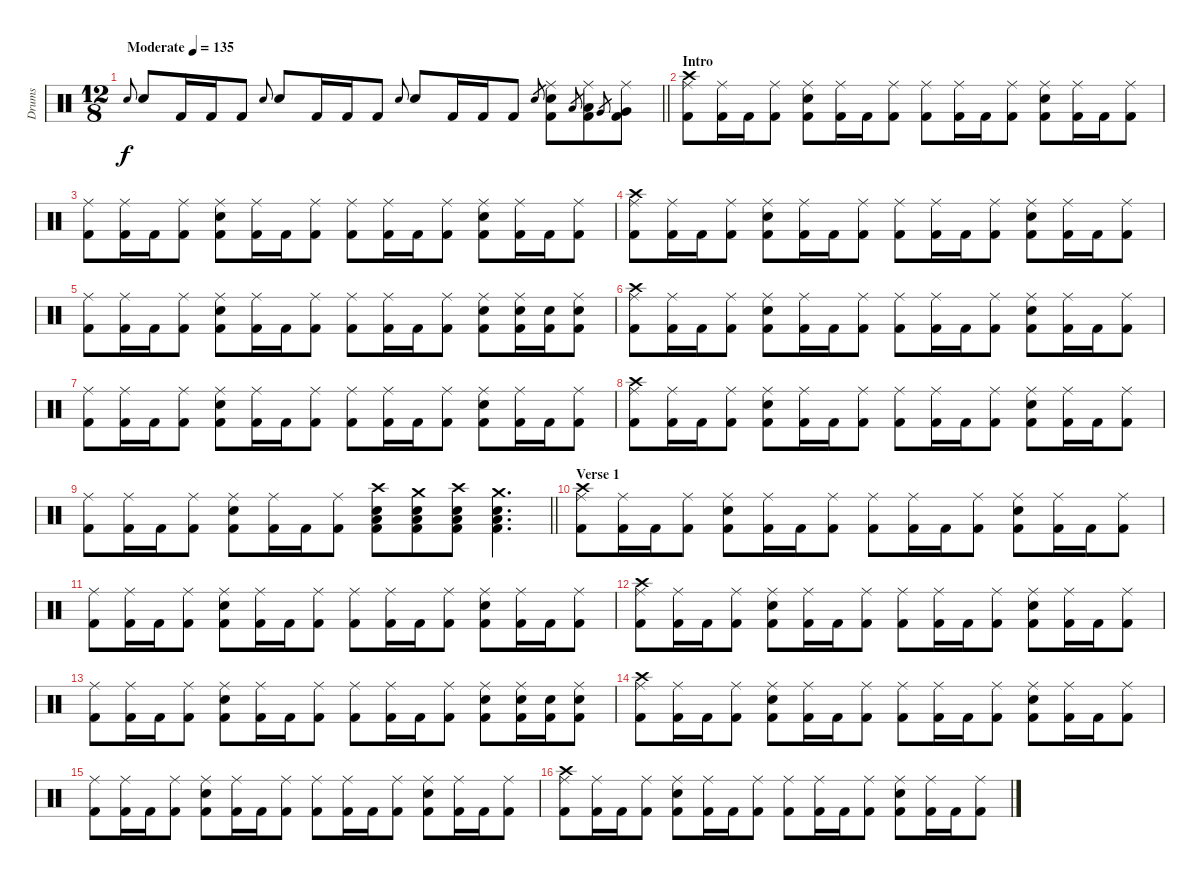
\track ("Drums" "Drums") {instrument percussion}
\staff {score}
\articulation defaults
\ts (12 8)
\tempo (135 "Moderate")
\clef neutral
\barLineRight lightlight
\ks c "Snare (hit) 2".8{gr onbeat dy f} "Snare (hit) 2".8 "Kick (hit) 2".16 "Kick (hit) 2".16 "Kick (hit) 2".8 "Snare (hit) 2".8{gr onbeat} "Snare (hit) 2".8 "Kick (hit) 2".16 "Kick (hit) 2".16 "Kick (hit) 2".8 "Snare (hit) 2".8{gr onbeat} "Snare (hit) 2".8 "Kick (hit) 2".16 "Kick (hit) 2".16 "Kick (hit) 2".8 "Snare (hit) 2".8{gr}
("Ride (middle)" "Snare (hit) 2" "Kick (hit) 2").8 "Low Tom (hit)".8{gr} ("Ride (middle)" "Low Tom (hit)" "Kick (hit) 2").8 "Very Low Tom (hit)".8{gr} ("Ride (middle)" "Very Low Tom (hit)" "Kick (hit) 2").8 |
\section ("" "Intro")
("Crash high (hit)" "Ride (middle)" "Kick (hit) 2").8 ("Ride (middle)" "Kick (hit) 2").16 "Kick (hit) 2".16 ("Ride (middle)" "Kick (hit) 2").8 ("Ride (middle)" "Snare (hit) 2" "Kick (hit) 2").8 ("Ride (middle)" "Kick (hit) 2").16 "Kick (hit) 2".16 ("Ride (middle)" "Kick (hit) 2").8 ("Ride (middle)" "Kick (hit) 2").8 ("Ride (middle)" "Kick (hit) 2").16 "Kick (hit) 2".16 ("Ride (middle)" "Kick (hit) 2").8 ("Ride (middle)" "Snare (hit) 2" "Kick (hit) 2").8 ("Ride (middle)" "Kick (hit) 2").16 "Kick (hit) 2".16 ("Ride (middle)" "Kick (hit) 2").8 |
("Ride (middle)" "Kick (hit) 2").8 ("Ride (middle)" "Kick (hit) 2").16 "Kick (hit) 2".16 ("Ride (middle)" "Kick (hit) 2").8 ("Ride (middle)" "Snare (hit) 2" "Kick (hit) 2").8 ("Ride (middle)" "Kick (hit) 2").16 "Kick (hit) 2".16 ("Ride (middle)" "Kick (hit) 2").8 ("Ride (middle)" "Kick (hit) 2").8 ("Ride (middle)" "Kick (hit) 2").16 "Kick (hit) 2".16 ("Ride (middle)" "Kick (hit) 2").8 ("Ride (middle)" "Snare (hit) 2" "Kick (hit) 2").8 ("Ride (middle)" "Kick (hit) 2").16 "Kick (hit) 2".16 ("Ride (middle)" "Kick (hit) 2").8 |
("Crash high (hit)" "Ride (middle)" "Kick (hit) 2").8 ("Ride (middle)" "Kick (hit) 2").16 "Kick (hit) 2".16 ("Ride (middle)" "Kick (hit) 2").8 ("Ride (middle)" "Snare (hit) 2" "Kick (hit) 2").8 ("Ride (middle)" "Kick (hit) 2").16 "Kick (hit) 2".16 ("Ride (middle)" "Kick (hit) 2").8 ("Ride (middle)" "Kick (hit) 2").8 ("Ride (middle)" "Kick (hit) 2").16 "Kick (hit) 2".16 ("Ride (middle)" "Kick (hit) 2").8 ("Ride (middle)" "Snare (hit) 2" "Kick (hit) 2").8 ("Ride (middle)" "Kick (hit) 2").16 "Kick (hit) 2".16 ("Ride (middle)" "Kick (hit) 2").8 |
("Ride (middle)" "Kick (hit) 2").8 ("Ride (middle)" "Kick (hit) 2").16 "Kick (hit) 2".16 ("Ride (middle)" "Kick (hit) 2").8 ("Ride (middle)" "Snare (hit) 2" "Kick (hit) 2").8 ("Ride (middle)" "Kick (hit) 2").16 "Kick (hit) 2".16 ("Ride (middle)" "Kick (hit) 2").8 ("Ride (middle)" "Kick (hit) 2").8 ("Ride (middle)" "Kick (hit) 2").16 "Kick (hit) 2".16 ("Ride (middle)" "Kick (hit) 2").8 ("Ride (middle)" "Snare (hit) 2" "Kick (hit) 2").8 ("Ride (middle)" "Snare (hit) 2" "Kick (hit) 2").16 ("Snare (hit) 2" "Kick (hit) 2").16 ("Ride (middle)" "Snare (hit) 2" "Kick (hit) 2").8 |
("Crash high (hit)" "Ride (middle)" "Kick (hit) 2").8 ("Ride (middle)" "Kick (hit) 2").16 "Kick (hit) 2".16 ("Ride (middle)" "Kick (hit) 2").8 ("Ride (middle)" "Snare (hit) 2" "Kick (hit) 2").8 ("Ride (middle)" "Kick (hit) 2").16 "Kick (hit) 2".16 ("Ride (middle)" "Kick (hit) 2").8 ("Ride (middle)" "Kick (hit) 2").8 ("Ride (middle)" "Kick (hit) 2").16 "Kick (hit) 2".16 ("Ride (middle)" "Kick (hit) 2").8 ("Ride (middle)" "Snare (hit) 2" "Kick (hit) 2").8 ("Ride (middle)" "Kick (hit) 2").16 "Kick (hit) 2".16 ("Ride (middle)" "Kick (hit) 2").8 |
("Ride (middle)" "Kick (hit) 2").8 ("Ride (middle)" "Kick (hit) 2").16 "Kick (hit) 2".16 ("Ride (middle)" "Kick (hit) 2").8 ("Ride (middle)" "Snare (hit) 2" "Kick (hit) 2").8 ("Ride (middle)" "Kick (hit) 2").16 "Kick (hit) 2".16 ("Ride (middle)" "Kick (hit) 2").8 ("Ride (middle)" "Kick (hit) 2").8 ("Ride (middle)" "Kick (hit) 2").16 "Kick (hit) 2".16 ("Ride (middle)" "Kick (hit) 2").8 ("Ride (middle)" "Snare (hit) 2" "Kick (hit) 2").8 ("Ride (middle)" "Kick (hit) 2").16 "Kick (hit) 2".16 ("Ride (middle)" "Kick (hit) 2").8 |
("Crash high (hit)" "Ride (middle)" "Kick (hit) 2").8 ("Ride (middle)" "Kick (hit) 2").16 "Kick (hit) 2".16 ("Ride (middle)" "Kick (hit) 2").8 ("Ride (middle)" "Snare (hit) 2" "Kick (hit) 2").8 ("Ride (middle)" "Kick (hit) 2").16 "Kick (hit) 2".16 ("Ride (middle)" "Kick (hit) 2").8 ("Ride (middle)" "Kick (hit) 2").8 ("Ride (middle)" "Kick (hit) 2").16 "Kick (hit) 2".16 ("Ride (middle)" "Kick (hit) 2").8 ("Ride (middle)" "Snare (hit) 2" "Kick (hit) 2").8 ("Ride (middle)" "Kick (hit) 2").16 "Kick (hit) 2".16 ("Ride (middle)" "Kick (hit) 2").8 |
\barLineRight lightlight
("Ride (middle)" "Kick (hit) 2").8 ("Ride (middle)" "Kick (hit) 2").16 "Kick (hit) 2".16 ("Ride (middle)" "Kick (hit) 2").8 ("Ride (middle)" "Snare (hit) 2" "Kick (hit) 2").8 ("Ride (middle)" "Kick (hit) 2").16 "Kick (hit) 2".16 ("Ride (middle)" "Kick (hit) 2").8 ("Crash high (hit)" "Low Floor Tom (hit)" "Snare (hit) 2" "Kick (hit) 2").8 ("Crash medium (hit)" "Low Floor Tom (hit)" "Snare (hit) 2" "Kick (hit) 2").8 ("Crash high (hit)" "Low Floor Tom (hit)" "Snare (hit) 2" "Kick (hit) 2").8 ("Crash medium (hit)" "Low Floor Tom (hit)" "Snare (hit) 2" "Kick (hit) 2").4{d} |
\section ("" "Verse 1")
("Crash high (hit)" "Ride (middle)" "Kick (hit) 2").8 ("Ride (middle)" "Kick (hit) 2").16 "Kick (hit) 2".16 ("Ride (middle)" "Kick (hit) 2").8 ("Ride (middle)" "Snare (hit) 2" "Kick (hit) 2").8 ("Ride (middle)" "Kick (hit) 2").16 "Kick (hit) 2".16 ("Ride (middle)" "Kick (hit) 2").8 ("Ride (middle)" "Kick (hit) 2").8 ("Ride (middle)" "Kick (hit) 2").16 "Kick (hit) 2".16 ("Ride (middle)" "Kick (hit) 2").8 ("Ride (middle)" "Snare (hit) 2" "Kick (hit) 2").8 ("Ride (middle)" "Kick (hit) 2").16 "Kick (hit) 2".16 ("Ride (middle)" "Kick (hit) 2").8 |
("Ride (middle)" "Kick (hit) 2").8 ("Ride (middle)" "Kick (hit) 2").16 "Kick (hit) 2".16 ("Ride (middle)" "Kick (hit) 2").8 ("Ride (middle)" "Snare (hit) 2" "Kick (hit) 2").8 ("Ride (middle)" "Kick (hit) 2").16 "Kick (hit) 2".16 ("Ride (middle)" "Kick (hit) 2").8 ("Ride (middle)" "Kick (hit) 2").8 ("Ride (middle)" "Kick (hit) 2").16 "Kick (hit) 2".16 ("Ride (middle)" "Kick (hit) 2").8 ("Ride (middle)" "Snare (hit) 2" "Kick (hit) 2").8 ("Ride (middle)" "Kick (hit) 2").16 "Kick (hit) 2".16 ("Ride (middle)" "Kick (hit) 2").8 |
("Crash high (hit)" "Ride (middle)" "Kick (hit) 2").8 ("Ride (middle)" "Kick (hit) 2").16 "Kick (hit) 2".16 ("Ride (middle)" "Kick (hit) 2").8 ("Ride (middle)" "Snare (hit) 2" "Kick (hit) 2").8 ("Ride (middle)" "Kick (hit) 2").16 "Kick (hit) 2".16 ("Ride (middle)" "Kick (hit) 2").8 ("Ride (middle)" "Kick (hit) 2").8 ("Ride (middle)" "Kick (hit) 2").16 "Kick (hit) 2".16 ("Ride (middle)" "Kick (hit) 2").8 ("Ride (middle)" "Snare (hit) 2" "Kick (hit) 2").8 ("Ride (middle)" "Kick (hit) 2").16 "Kick (hit) 2".16 ("Ride (middle)" "Kick (hit) 2").8 |
("Ride (middle)" "Kick (hit) 2").8 ("Ride (middle)" "Kick (hit) 2").16 "Kick (hit) 2".16 ("Ride (middle)" "Kick (hit) 2").8 ("Ride (middle)" "Snare (hit) 2" "Kick (hit) 2").8 ("Ride (middle)" "Kick (hit) 2").16 "Kick (hit) 2".16 ("Ride (middle)" "Kick (hit) 2").8 ("Ride (middle)" "Kick (hit) 2").8 ("Ride (middle)" "Kick (hit) 2").16 "Kick (hit) 2".16 ("Ride (middle)" "Kick (hit) 2").8 ("Ride (middle)" "Snare (hit) 2" "Kick (hit) 2").8 ("Ride (middle)" "Snare (hit) 2" "Kick (hit) 2").16 ("Snare (hit) 2" "Kick (hit) 2").16 ("Ride (middle)" "Snare (hit) 2" "Kick (hit) 2").8 |
("Crash high (hit)" "Ride (middle)" "Kick (hit) 2").8 ("Ride (middle)" "Kick (hit) 2").16 "Kick (hit) 2".16 ("Ride (middle)" "Kick (hit) 2").8 ("Ride (middle)" "Snare (hit) 2" "Kick (hit) 2").8 ("Ride (middle)" "Kick (hit) 2").16 "Kick (hit) 2".16 ("Ride (middle)" "Kick (hit) 2").8 ("Ride (middle)" "Kick (hit) 2").8 ("Ride (middle)" "Kick (hit) 2").16 "Kick (hit) 2".16 ("Ride (middle)" "Kick (hit) 2").8 ("Ride (middle)" "Snare (hit) 2" "Kick (hit) 2").8 ("Ride (middle)" "Kick (hit) 2").16 "Kick (hit) 2".16 ("Ride (middle)" "Kick (hit) 2").8 |
("Ride (middle)" "Kick (hit) 2").8 ("Ride (middle)" "Kick (hit) 2").16 "Kick (hit) 2".16 ("Ride (middle)" "Kick (hit) 2").8 ("Ride (middle)" "Snare (hit) 2" "Kick (hit) 2").8 ("Ride (middle)" "Kick (hit) 2").16 "Kick (hit) 2".16 ("Ride (middle)" "Kick (hit) 2").8 ("Ride (middle)" "Kick (hit) 2").8 ("Ride (middle)" "Kick (hit) 2").16 "Kick (hit) 2".16 ("Ride (middle)" "Kick (hit) 2").8 ("Ride (middle)" "Snare (hit) 2" "Kick (hit) 2").8 ("Ride (middle)" "Kick (hit) 2").16 "Kick (hit) 2".16 ("Ride (middle)" "Kick (hit) 2").8 |
("Crash high (hit)" "Ride (middle)" "Kick (hit) 2").8 ("Ride (middle)" "Kick (hit) 2").16 "Kick (hit) 2".16 ("Ride (middle)" "Kick (hit) 2").8 ("Ride (middle)" "Snare (hit) 2" "Kick (hit) 2").8 ("Ride (middle)" "Kick (hit) 2").16 "Kick (hit) 2".16 ("Ride (middle)" "Kick (hit) 2").8 ("Ride (middle)" "Kick (hit) 2").8 ("Ride (middle)" "Kick (hit) 2").16 "Kick (hit) 2".16 ("Ride (middle)" "Kick (hit) 2").8 ("Ride (middle)" "Snare (hit) 2" "Kick (hit) 2").8 ("Ride (middle)" "Kick (hit) 2").16 "Kick (hit) 2".16 ("Ride (middle)" "Kick (hit) 2").8
